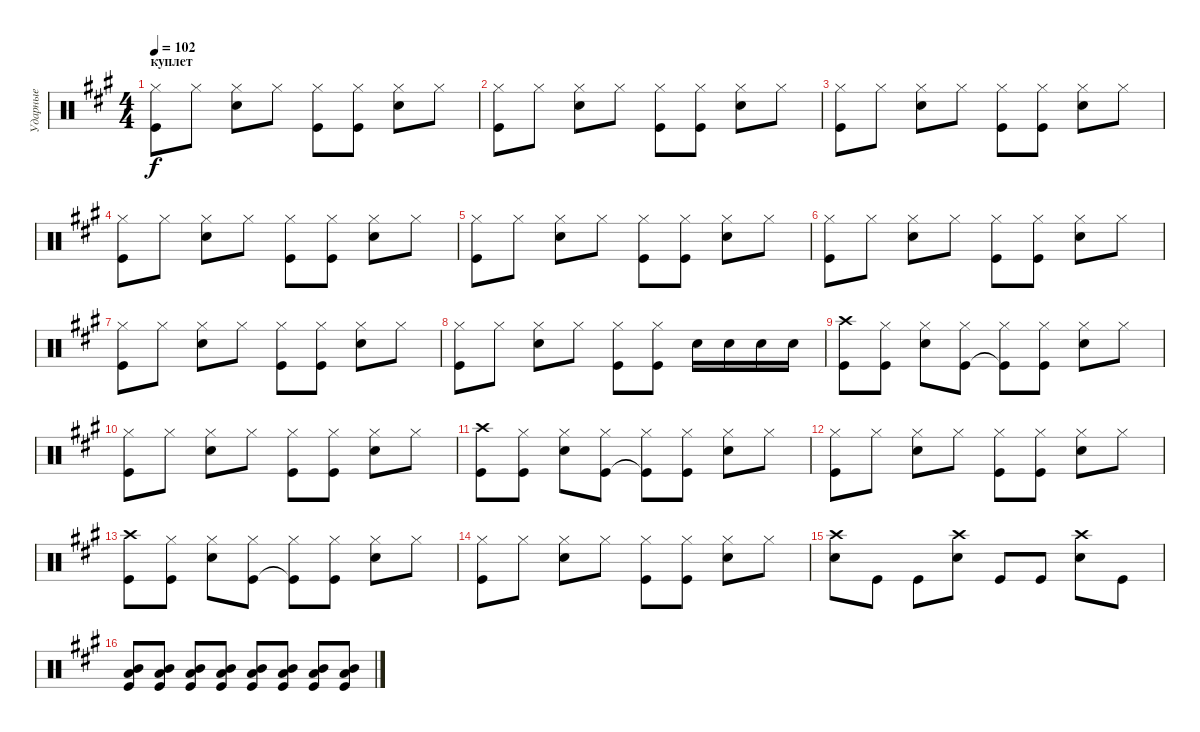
\track ("Ударные" "Ударные") {instrument percussion}
\staff {score}
\articulation defaults
\ts (4 4)
\section ("" "куплет")
\tempo 102
\clef neutral
\ks f#minor
("Hi-Hat (closed)" "Kick (hit)").8{dy f} "Hi-Hat (closed)".8 ("Hi-Hat (closed)" "Snare (hit) 2").8 "Hi-Hat (closed)".8 ("Hi-Hat (closed)" "Kick (hit)").8 ("Hi-Hat (closed)" "Kick (hit)").8 ("Hi-Hat (closed)" "Snare (hit) 2").8 "Hi-Hat (closed)".8 |
("Hi-Hat (closed)" "Kick (hit)").8 "Hi-Hat (closed)".8 ("Hi-Hat (closed)" "Snare (hit) 2").8 "Hi-Hat (closed)".8 ("Hi-Hat (closed)" "Kick (hit)").8 ("Hi-Hat (closed)" "Kick (hit)").8 ("Hi-Hat (closed)" "Snare (hit) 2").8 "Hi-Hat (closed)".8 |
("Hi-Hat (closed)" "Kick (hit)").8 "Hi-Hat (closed)".8 ("Hi-Hat (closed)" "Snare (hit) 2").8 "Hi-Hat (closed)".8 ("Hi-Hat (closed)" "Kick (hit)").8 ("Hi-Hat (closed)" "Kick (hit)").8 ("Hi-Hat (closed)" "Snare (hit) 2").8 "Hi-Hat (closed)".8 |
("Hi-Hat (closed)" "Kick (hit)").8 "Hi-Hat (closed)".8 ("Hi-Hat (closed)" "Snare (hit) 2").8 "Hi-Hat (closed)".8 ("Hi-Hat (closed)" "Kick (hit)").8 ("Hi-Hat (closed)" "Kick (hit)").8 ("Hi-Hat (closed)" "Snare (hit) 2").8 "Hi-Hat (closed)".8 |
("Hi-Hat (closed)" "Kick (hit)").8 "Hi-Hat (closed)".8 ("Hi-Hat (closed)" "Snare (hit) 2").8 "Hi-Hat (closed)".8 ("Hi-Hat (closed)" "Kick (hit)").8 ("Hi-Hat (closed)" "Kick (hit)").8 ("Hi-Hat (closed)" "Snare (hit) 2").8 "Hi-Hat (closed)".8 |
("Hi-Hat (closed)" "Kick (hit)").8 "Hi-Hat (closed)".8 ("Hi-Hat (closed)" "Snare (hit) 2").8 "Hi-Hat (closed)".8 ("Hi-Hat (closed)" "Kick (hit)").8 ("Hi-Hat (closed)" "Kick (hit)").8 ("Hi-Hat (closed)" "Snare (hit) 2").8 "Hi-Hat (closed)".8 |
("Hi-Hat (closed)" "Kick (hit)").8 "Hi-Hat (closed)".8 ("Hi-Hat (closed)" "Snare (hit) 2").8 "Hi-Hat (closed)".8 ("Hi-Hat (closed)" "Kick (hit)").8 ("Hi-Hat (closed)" "Kick (hit)").8 ("Hi-Hat (closed)" "Snare (hit) 2").8 "Hi-Hat (closed)".8 |
("Hi-Hat (closed)" "Kick (hit)").8 "Hi-Hat (closed)".8 ("Hi-Hat (closed)" "Snare (hit) 2").8 "Hi-Hat (closed)".8 ("Hi-Hat (closed)" "Kick (hit)").8 ("Hi-Hat (closed)" "Kick (hit)").8 "Snare (hit) 2".16 "Snare (hit) 2".16 "Snare (hit) 2".16 "Snare (hit) 2".16 |
("Crash high (hit)" "Kick (hit)").8 ("Hi-Hat (closed)" "Kick (hit)").8 ("Hi-Hat (closed)" "Snare (hit) 2").8 ("Hi-Hat (closed)" "Kick (hit)").8 ("Hi-Hat (closed)" "Kick (hit)"{t}).8 ("Hi-Hat (closed)" "Kick (hit)").8 ("Hi-Hat (closed)" "Snare (hit) 2").8 "Hi-Hat (closed)".8 |
("Hi-Hat (closed)" "Kick (hit)").8 "Hi-Hat (closed)".8 ("Hi-Hat (closed)" "Snare (hit) 2").8 "Hi-Hat (closed)".8 ("Hi-Hat (closed)" "Kick (hit)").8 ("Hi-Hat (closed)" "Kick (hit)").8 ("Hi-Hat (closed)" "Snare (hit) 2").8 "Hi-Hat (closed)".8 |
("Crash high (hit)" "Kick (hit)").8 ("Hi-Hat (closed)" "Kick (hit)").8 ("Hi-Hat (closed)" "Snare (hit) 2").8 ("Hi-Hat (closed)" "Kick (hit)").8 ("Hi-Hat (closed)" "Kick (hit)"{t}).8 ("Hi-Hat (closed)" "Kick (hit)").8 ("Hi-Hat (closed)" "Snare (hit) 2").8 "Hi-Hat (closed)".8 |
("Hi-Hat (closed)" "Kick (hit)").8 "Hi-Hat (closed)".8 ("Hi-Hat (closed)" "Snare (hit) 2").8 "Hi-Hat (closed)".8 ("Hi-Hat (closed)" "Kick (hit)").8 ("Hi-Hat (closed)" "Kick (hit)").8 ("Hi-Hat (closed)" "Snare (hit) 2").8 "Hi-Hat (closed)".8 |
("Crash high (hit)" "Kick (hit)").8 ("Hi-Hat (closed)" "Kick (hit)").8 ("Hi-Hat (closed)" "Snare (hit) 2").8 ("Hi-Hat (closed)" "Kick (hit)").8 ("Hi-Hat (closed)" "Kick (hit)"{t}).8 ("Hi-Hat (closed)" "Kick (hit)").8 ("Hi-Hat (closed)" "Snare (hit) 2").8 "Hi-Hat (closed)".8 |
("Hi-Hat (closed)" "Kick (hit)").8 "Hi-Hat (closed)".8 ("Hi-Hat (closed)" "Snare (hit) 2").8 "Hi-Hat (closed)".8 ("Hi-Hat (closed)" "Kick (hit)").8 ("Hi-Hat (closed)" "Kick (hit)").8 ("Hi-Hat (closed)" "Snare (hit) 2").8 "Hi-Hat (closed)".8 |
("Crash high (hit)" "Snare (hit) 2").8 "Kick (hit)".8 "Kick (hit)".8 ("Crash high (hit)" "Snare (hit) 2").8 "Kick (hit)".8 "Kick (hit)".8 ("Crash high (hit)" "Snare (hit) 2").8 "Kick (hit)".8 |
("Kick (hit)" "Low Tom (hit)" "Mid Tom (hit)").8 ("Kick (hit)" "Low Tom (hit)" "Mid Tom (hit)").8 ("Kick (hit)" "Low Tom (hit)" "Mid Tom (hit)").8 ("Kick (hit)" "Low Tom (hit)" "Mid Tom (hit)").8 ("Kick (hit)" "Low Tom (hit)" "Mid Tom (hit)").8 ("Kick (hit)" "Low Tom (hit)" "Mid Tom (hit)").8 ("Kick (hit)" "Low Tom (hit)" "Mid Tom (hit)").8 ("Kick (hit)" "Low Tom (hit)" "Mid Tom (hit)").8
